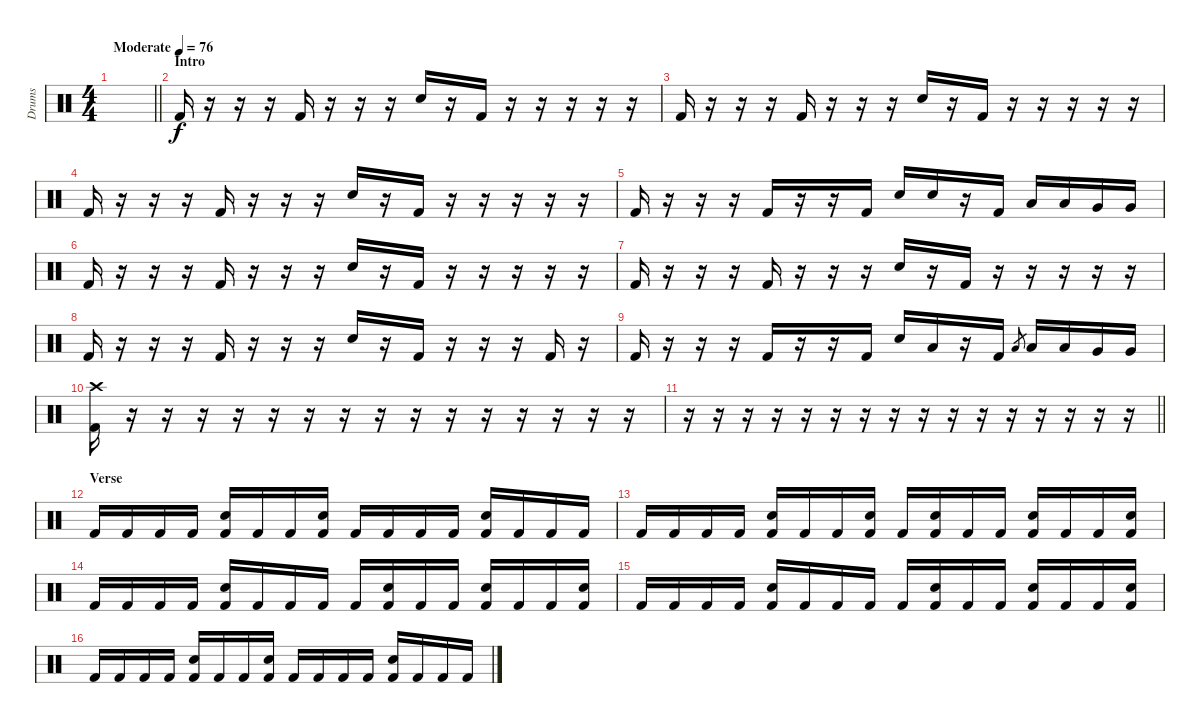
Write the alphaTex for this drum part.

\track ("Drums" "Drums") {instrument percussion}
\staff {score}
\articulation defaults
\ts (4 4)
\tempo (76 "Moderate")
\clef neutral
\barLineRight lightlight
\ks c
|
\section ("" "Intro")
"Kick (hit) 2".16 r.16 r.16 r.16 "Kick (hit) 2".16 r.16 r.16 r.16 "Electric Snare (hit)".16 r.16 "Kick (hit) 2".16 r.16 r.16 r.16 r.16 r.16 |
"Kick (hit) 2".16 r.16 r.16 r.16 "Kick (hit) 2".16 r.16 r.16 r.16 "Electric Snare (hit)".16 r.16 "Kick (hit) 2".16 r.16 r.16 r.16 r.16 r.16 |
"Kick (hit) 2".16 r.16 r.16 r.16 "Kick (hit) 2".16 r.16 r.16 r.16 "Electric Snare (hit)".16 r.16 "Kick (hit) 2".16 r.16 r.16 r.16 r.16 r.16 |
"Kick (hit) 2".16 r.16 r.16 r.16 "Kick (hit) 2".16 r.16 r.16 "Kick (hit) 2".16 "Electric Snare (hit)".16 "Electric Snare (hit)".16 r.16 "Kick (hit) 2".16 "Low Tom (hit)".16 "Low Tom (hit)".16 "Very Low Tom (hit)".16 "Very Low Tom (hit)".16 |
"Kick (hit) 2".16 r.16 r.16 r.16 "Kick (hit) 2".16 r.16 r.16 r.16 "Electric Snare (hit)".16 r.16 "Kick (hit) 2".16 r.16 r.16 r.16 r.16 r.16 |
"Kick (hit) 2".16 r.16 r.16 r.16 "Kick (hit) 2".16 r.16 r.16 r.16 "Electric Snare (hit)".16 r.16 "Kick (hit) 2".16 r.16 r.16 r.16 r.16 r.16 |
"Kick (hit) 2".16 r.16 r.16 r.16 "Kick (hit) 2".16 r.16 r.16 r.16 "Electric Snare (hit)".16 r.16 "Kick (hit) 2".16 r.16 r.16 r.16 "Kick (hit) 2".16 r.16 |
"Kick (hit) 2".16 r.16 r.16 r.16 "Kick (hit) 2".16 r.16 r.16 "Kick (hit) 2".16 "Electric Snare (hit)".16 "Low Tom (hit)".16 r.16 "Kick (hit) 2".16 "Low Tom (hit)".8{gr} "Low Tom (hit)".16 "Low Tom (hit)".16 "Very Low Tom (hit)".16 "Very Low Tom (hit)".16 |
("Crash high (hit)" "Kick (hit) 2").16 r.16 r.16 r.16 r.16 r.16 r.16 r.16 r.16 r.16 r.16 r.16 r.16 r.16 r.16 r.16 |
\barLineRight lightlight
r.16 r.16 r.16 r.16 r.16 r.16 r.16 r.16 r.16 r.16 r.16 r.16 r.16 r.16 r.16 r.16 |
\section ("" "Verse")
"Kick (hit) 2".16 "Kick (hit) 2".16 "Kick (hit) 2".16 "Kick (hit) 2".16 ("Electric Snare (hit)" "Kick (hit) 2").16 "Kick (hit) 2".16 "Kick (hit) 2".16 ("Electric Snare (hit)" "Kick (hit) 2").16 "Kick (hit) 2".16 "Kick (hit) 2".16 "Kick (hit) 2".16 "Kick (hit) 2".16 ("Electric Snare (hit)" "Kick (hit) 2").16 "Kick (hit) 2".16 "Kick (hit) 2".16 "Kick (hit) 2".16 |
"Kick (hit) 2".16 "Kick (hit) 2".16 "Kick (hit) 2".16 "Kick (hit) 2".16 ("Electric Snare (hit)" "Kick (hit) 2").16 "Kick (hit) 2".16 "Kick (hit) 2".16 ("Electric Snare (hit)" "Kick (hit) 2").16 "Kick (hit) 2".16 ("Electric Snare (hit)" "Kick (hit) 2").16 "Kick (hit) 2".16 "Kick (hit) 2".16 ("Electric Snare (hit)" "Kick (hit) 2").16 "Kick (hit) 2".16 "Kick (hit) 2".16 ("Electric Snare (hit)" "Kick (hit) 2").16 |
"Kick (hit) 2".16 "Kick (hit) 2".16 "Kick (hit) 2".16 "Kick (hit) 2".16 ("Electric Snare (hit)" "Kick (hit) 2").16 "Kick (hit) 2".16 "Kick (hit) 2".16 "Kick (hit) 2".16 "Kick (hit) 2".16 ("Electric Snare (hit)" "Kick (hit) 2").16 "Kick (hit) 2".16 "Kick (hit) 2".16 ("Electric Snare (hit)" "Kick (hit) 2").16 "Kick (hit) 2".16 "Kick (hit) 2".16 ("Electric Snare (hit)" "Kick (hit) 2").16 |
"Kick (hit) 2".16 "Kick (hit) 2".16 "Kick (hit) 2".16 "Kick (hit) 2".16 ("Electric Snare (hit)" "Kick (hit) 2").16 "Kick (hit) 2".16 "Kick (hit) 2".16 "Kick (hit) 2".16 "Kick (hit) 2".16 ("Electric Snare (hit)" "Kick (hit) 2").16 "Kick (hit) 2".16 "Kick (hit) 2".16 ("Electric Snare (hit)" "Kick (hit) 2").16 "Kick (hit) 2".16 "Kick (hit) 2".16 ("Electric Snare (hit)" "Kick (hit) 2").16 |
"Kick (hit) 2".16 "Kick (hit) 2".16 "Kick (hit) 2".16 "Kick (hit) 2".16 ("Electric Snare (hit)" "Kick (hit) 2").16 "Kick (hit) 2".16 "Kick (hit) 2".16 ("Electric Snare (hit)" "Kick (hit) 2").16 "Kick (hit) 2".16 "Kick (hit) 2".16 "Kick (hit) 2".16 "Kick (hit) 2".16 ("Electric Snare (hit)" "Kick (hit) 2").16 "Kick (hit) 2".16 "Kick (hit) 2".16 "Kick (hit) 2".16
